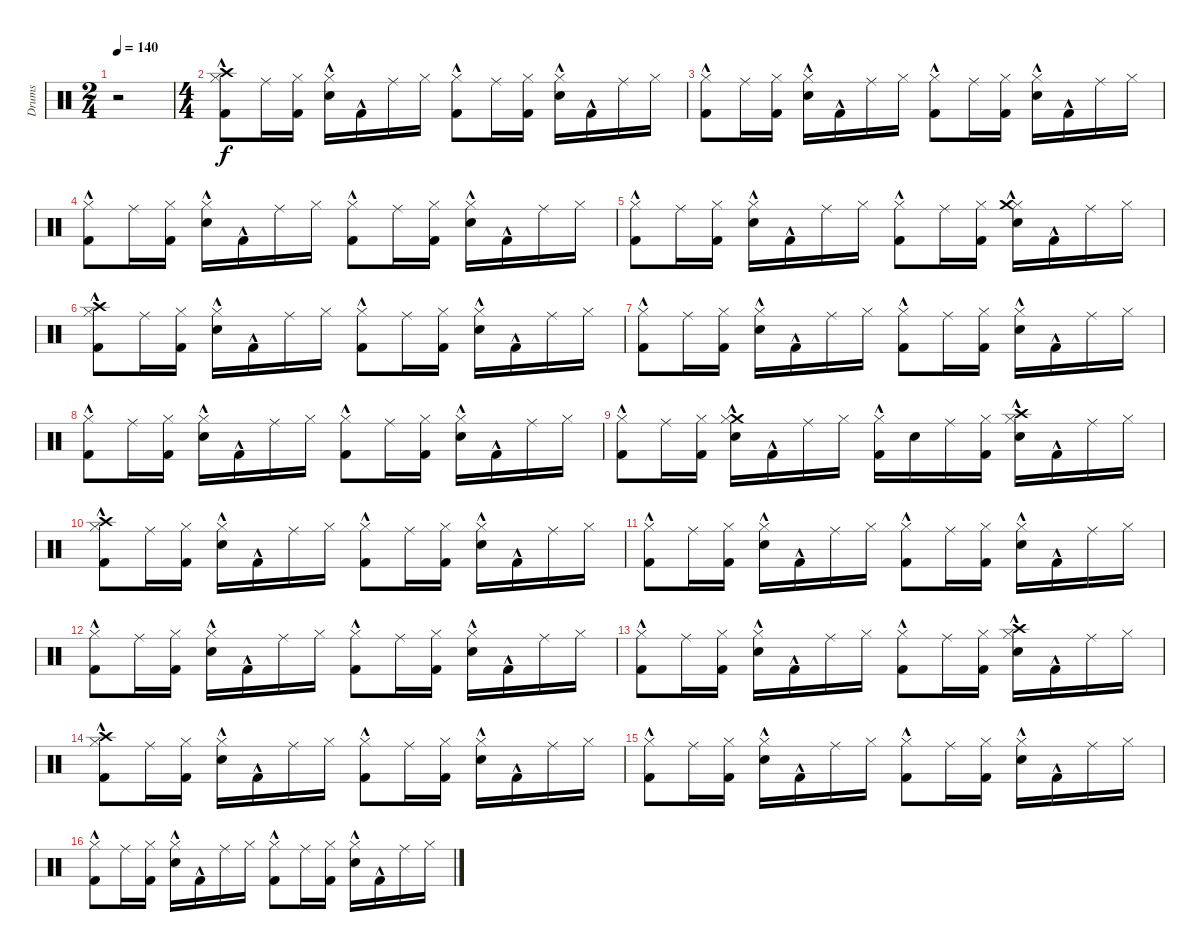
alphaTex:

\track ("Drums" "Drums") {instrument percussion}
\staff {score}
\articulation defaults
\ts (2 4)
\tempo 140
\clef neutral
\ks c
r.2{dy f} |
\ts (4 4)
("Hi-Hat (closed)"{hac} "Crash high (hit)" "Kick (hit) 2"{hac}).8 "Ride (middle)".16 ("Hi-Hat (closed)" "Kick (hit) 2").16 ("Electric Snare (hit)" "Hi-Hat (closed)"{hac}).16 "Kick (hit) 2"{hac}.16 "Ride (middle)".16 "Hi-Hat (closed)".16 ("Kick (hit) 2"{hac} "Hi-Hat (closed)"{hac}).8 "Ride (middle)".16 ("Kick (hit) 2" "Hi-Hat (closed)").16 ("Electric Snare (hit)" "Hi-Hat (closed)"{hac}).16 "Kick (hit) 2"{hac}.16 "Ride (middle)".16 "Hi-Hat (closed)".16 |
("Kick (hit) 2"{hac} "Hi-Hat (closed)"{hac}).8 "Ride (middle)".16 ("Hi-Hat (closed)" "Kick (hit) 2").16 ("Hi-Hat (closed)"{hac} "Electric Snare (hit)").16 "Kick (hit) 2"{hac}.16 "Ride (middle)".16 "Hi-Hat (closed)".16 ("Hi-Hat (closed)"{hac} "Kick (hit) 2"{hac}).8 "Ride (middle)".16 ("Kick (hit) 2" "Hi-Hat (closed)").16 ("Hi-Hat (closed)"{hac} "Electric Snare (hit)").16 "Kick (hit) 2"{hac}.16 "Ride (middle)".16 "Hi-Hat (closed)".16 |
("Kick (hit) 2"{hac} "Hi-Hat (closed)"{hac}).8 "Ride (middle)".16 ("Hi-Hat (closed)" "Kick (hit) 2").16 ("Electric Snare (hit)" "Hi-Hat (closed)"{hac}).16 "Kick (hit) 2"{hac}.16 "Ride (middle)".16 "Hi-Hat (closed)".16 ("Kick (hit) 2"{hac} "Hi-Hat (closed)"{hac}).8 "Ride (middle)".16 ("Hi-Hat (closed)" "Kick (hit) 2").16 ("Electric Snare (hit)" "Hi-Hat (closed)"{hac}).16 "Kick (hit) 2"{hac}.16 "Ride (middle)".16 "Hi-Hat (closed)".16 |
("Hi-Hat (closed)"{hac} "Kick (hit) 2"{hac}).8 "Ride (middle)".16 ("Hi-Hat (closed)" "Kick (hit) 2").16 ("Electric Snare (hit)" "Hi-Hat (closed)"{hac}).16 "Kick (hit) 2"{hac}.16 "Ride (middle)".16 "Hi-Hat (closed)".16 ("Hi-Hat (closed)"{hac} "Kick (hit) 2"{hac}).8 "Ride (middle)".16 ("Hi-Hat (closed)" "Kick (hit) 2").16 ("Electric Snare (hit)" "Hi-Hat (closed)"{hac} "Crash medium (hit)").16 "Kick (hit) 2"{hac}.16 "Ride (middle)".16 "Hi-Hat (closed)".16 |
("Crash high (hit)" "Kick (hit) 2"{hac} "Hi-Hat (closed)"{hac}).8 "Ride (middle)".16 ("Kick (hit) 2" "Hi-Hat (closed)").16 ("Electric Snare (hit)" "Hi-Hat (closed)"{hac}).16 "Kick (hit) 2"{hac}.16 "Ride (middle)".16 "Hi-Hat (closed)".16 ("Hi-Hat (closed)"{hac} "Kick (hit) 2"{hac}).8 "Ride (middle)".16 ("Kick (hit) 2" "Hi-Hat (closed)").16 ("Hi-Hat (closed)"{hac} "Electric Snare (hit)").16 "Kick (hit) 2"{hac}.16 "Ride (middle)".16 "Hi-Hat (closed)".16 |
("Hi-Hat (closed)"{hac} "Kick (hit) 2"{hac}).8 "Ride (middle)".16 ("Hi-Hat (closed)" "Kick (hit) 2").16 ("Electric Snare (hit)" "Hi-Hat (closed)"{hac}).16 "Kick (hit) 2"{hac}.16 "Ride (middle)".16 "Hi-Hat (closed)".16 ("Kick (hit) 2"{hac} "Hi-Hat (closed)"{hac}).8 "Ride (middle)".16 ("Hi-Hat (closed)" "Kick (hit) 2").16 ("Electric Snare (hit)" "Hi-Hat (closed)"{hac}).16 "Kick (hit) 2"{hac}.16 "Ride (middle)".16 "Hi-Hat (closed)".16 |
("Kick (hit) 2"{hac} "Hi-Hat (closed)"{hac}).8 "Ride (middle)".16 ("Hi-Hat (closed)" "Kick (hit) 2").16 ("Hi-Hat (closed)"{hac} "Electric Snare (hit)").16 "Kick (hit) 2"{hac}.16 "Ride (middle)".16 "Hi-Hat (closed)".16 ("Kick (hit) 2"{hac} "Hi-Hat (closed)"{hac}).8 "Ride (middle)".16 ("Kick (hit) 2" "Hi-Hat (closed)").16 ("Electric Snare (hit)" "Hi-Hat (closed)"{hac}).16 "Kick (hit) 2"{hac}.16 "Ride (middle)".16 "Hi-Hat (closed)".16 |
("Hi-Hat (closed)"{hac} "Kick (hit) 2"{hac}).8 "Ride (middle)".16 ("Hi-Hat (closed)" "Kick (hit) 2").16 ("Crash medium (hit)" "Electric Snare (hit)" "Hi-Hat (closed)"{hac}).16 "Kick (hit) 2"{hac}.16 "Ride (middle)".16 "Hi-Hat (closed)".16 ("Kick (hit) 2" "Hi-Hat (closed)"{hac}).16 "Electric Snare (hit)".16 "Ride (middle)".16 ("Hi-Hat (closed)" "Kick (hit) 2").16 ("Hi-Hat (closed)"{hac} "Crash high (hit)" "Electric Snare (hit)").16 "Kick (hit) 2"{hac}.16 "Ride (middle)".16 "Hi-Hat (closed)".16 |
("Hi-Hat (closed)"{hac} "Crash high (hit)" "Kick (hit) 2"{hac}).8 "Ride (middle)".16 ("Hi-Hat (closed)" "Kick (hit) 2").16 ("Electric Snare (hit)" "Hi-Hat (closed)"{hac}).16 "Kick (hit) 2"{hac}.16 "Ride (middle)".16 "Hi-Hat (closed)".16 ("Kick (hit) 2"{hac} "Hi-Hat (closed)"{hac}).8 "Ride (middle)".16 ("Kick (hit) 2" "Hi-Hat (closed)").16 ("Electric Snare (hit)" "Hi-Hat (closed)"{hac}).16 "Kick (hit) 2"{hac}.16 "Ride (middle)".16 "Hi-Hat (closed)".16 |
("Kick (hit) 2"{hac} "Hi-Hat (closed)"{hac}).8 "Ride (middle)".16 ("Hi-Hat (closed)" "Kick (hit) 2").16 ("Hi-Hat (closed)"{hac} "Electric Snare (hit)").16 "Kick (hit) 2"{hac}.16 "Ride (middle)".16 "Hi-Hat (closed)".16 ("Hi-Hat (closed)"{hac} "Kick (hit) 2"{hac}).8 "Ride (middle)".16 ("Kick (hit) 2" "Hi-Hat (closed)").16 ("Hi-Hat (closed)"{hac} "Electric Snare (hit)").16 "Kick (hit) 2"{hac}.16 "Ride (middle)".16 "Hi-Hat (closed)".16 |
("Kick (hit) 2"{hac} "Hi-Hat (closed)"{hac}).8 "Ride (middle)".16 ("Hi-Hat (closed)" "Kick (hit) 2").16 ("Electric Snare (hit)" "Hi-Hat (closed)"{hac}).16 "Kick (hit) 2"{hac}.16 "Ride (middle)".16 "Hi-Hat (closed)".16 ("Kick (hit) 2"{hac} "Hi-Hat (closed)"{hac}).8 "Ride (middle)".16 ("Hi-Hat (closed)" "Kick (hit) 2").16 ("Electric Snare (hit)" "Hi-Hat (closed)"{hac}).16 "Kick (hit) 2"{hac}.16 "Ride (middle)".16 "Hi-Hat (closed)".16 |
("Hi-Hat (closed)"{hac} "Kick (hit) 2"{hac}).8 "Ride (middle)".16 ("Hi-Hat (closed)" "Kick (hit) 2").16 ("Electric Snare (hit)" "Hi-Hat (closed)"{hac}).16 "Kick (hit) 2"{hac}.16 "Ride (middle)".16 "Hi-Hat (closed)".16 ("Hi-Hat (closed)"{hac} "Kick (hit) 2"{hac}).8 "Ride (middle)".16 ("Hi-Hat (closed)" "Kick (hit) 2").16 ("Electric Snare (hit)" "Hi-Hat (closed)"{hac} "Crash high (hit)").16 "Kick (hit) 2"{hac}.16 "Ride (middle)".16 "Hi-Hat (closed)".16 |
("Crash high (hit)" "Kick (hit) 2"{hac} "Hi-Hat (closed)"{hac}).8 "Ride (middle)".16 ("Kick (hit) 2" "Hi-Hat (closed)").16 ("Electric Snare (hit)" "Hi-Hat (closed)"{hac}).16 "Kick (hit) 2"{hac}.16 "Ride (middle)".16 "Hi-Hat (closed)".16 ("Hi-Hat (closed)"{hac} "Kick (hit) 2"{hac}).8 "Ride (middle)".16 ("Kick (hit) 2" "Hi-Hat (closed)").16 ("Hi-Hat (closed)"{hac} "Electric Snare (hit)").16 "Kick (hit) 2"{hac}.16 "Ride (middle)".16 "Hi-Hat (closed)".16 |
("Hi-Hat (closed)"{hac} "Kick (hit) 2"{hac}).8 "Ride (middle)".16 ("Hi-Hat (closed)" "Kick (hit) 2").16 ("Electric Snare (hit)" "Hi-Hat (closed)"{hac}).16 "Kick (hit) 2"{hac}.16 "Ride (middle)".16 "Hi-Hat (closed)".16 ("Kick (hit) 2"{hac} "Hi-Hat (closed)"{hac}).8 "Ride (middle)".16 ("Hi-Hat (closed)" "Kick (hit) 2").16 ("Electric Snare (hit)" "Hi-Hat (closed)"{hac}).16 "Kick (hit) 2"{hac}.16 "Ride (middle)".16 "Hi-Hat (closed)".16 |
("Kick (hit) 2"{hac} "Hi-Hat (closed)"{hac}).8 "Ride (middle)".16 ("Hi-Hat (closed)" "Kick (hit) 2").16 ("Hi-Hat (closed)"{hac} "Electric Snare (hit)").16 "Kick (hit) 2"{hac}.16 "Ride (middle)".16 "Hi-Hat (closed)".16 ("Kick (hit) 2"{hac} "Hi-Hat (closed)"{hac}).8 "Ride (middle)".16 ("Kick (hit) 2" "Hi-Hat (closed)").16 ("Electric Snare (hit)" "Hi-Hat (closed)"{hac}).16 "Kick (hit) 2"{hac}.16 "Ride (middle)".16 "Hi-Hat (closed)".16
